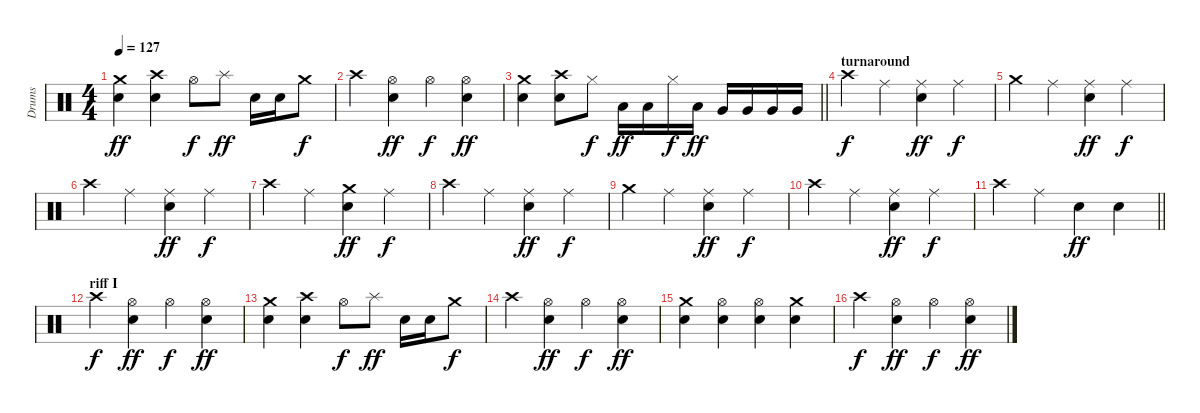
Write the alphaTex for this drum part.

\track ("Drums" "Drums") {instrument percussion}
\staff {score}
\articulation defaults
\ts (4 4)
\tempo 127
\clef neutral
\ks c
("Crash medium (hit)" "Snare (hit) 2").4{dy ff} ("Crash high (hit)" "Snare (hit) 2").4 "Hi-Hat (open)".8{dy f} "Splash (hit)".8{dy ff} "Snare (hit) 2".16 "Snare (hit) 2".16 "Crash medium (hit)".8{dy f} |
"Crash high (hit)".4 ("Hi-Hat (open)" "Snare (hit) 2").4{dy ff} "Hi-Hat (open)".4{dy f} ("Hi-Hat (open)" "Snare (hit) 2").4{dy ff} |
\barLineRight lightlight
("Crash medium (hit)" "Snare (hit) 2").4 ("Crash high (hit)" "Snare (hit) 2").8 "Hi-Hat (closed)".8{dy f} "Low Tom (hit)".16{dy ff} "Low Tom (hit)".16 "Hi-Hat (closed)".16{dy f} "Low Tom (hit)".16{dy ff} "Very Low Tom (hit)".16 "Very Low Tom (hit)".16 "Very Low Tom (hit)".16 "Very Low Tom (hit)".16 |
\section ("" "turnaround")
"Crash high (hit)".4{dy f} "Ride (middle)".4 ("Ride (middle)" "Snare (hit) 2").4{dy ff} "Ride (middle)".4{dy f} |
"Crash medium (hit)".4 "Ride (middle)".4 ("Ride (middle)" "Snare (hit) 2").4{dy ff} "Ride (middle)".4{dy f} |
"Crash high (hit)".4 "Ride (middle)".4 ("Ride (middle)" "Snare (hit) 2").4{dy ff} "Ride (middle)".4{dy f} |
"Crash high (hit)".4 "Ride (middle)".4 ("Crash medium (hit)" "Snare (hit) 2").4{dy ff} "Ride (middle)".4{dy f} |
"Crash high (hit)".4 "Ride (middle)".4 ("Ride (middle)" "Snare (hit) 2").4{dy ff} "Ride (middle)".4{dy f} |
"Crash medium (hit)".4 "Ride (middle)".4 ("Ride (middle)" "Snare (hit) 2").4{dy ff} "Ride (middle)".4{dy f} |
"Crash high (hit)".4 "Ride (middle)".4 ("Ride (middle)" "Snare (hit) 2").4{dy ff} "Ride (middle)".4{dy f} |
\barLineRight lightlight "Crash high (hit)".4 "Ride (middle)".4 "Snare (hit) 2".4{dy ff} "Snare (hit) 2".4
|
\section ("" "riff I")
"Crash high (hit)".4{dy f} ("Hi-Hat (open)" "Snare (hit) 2").4{dy ff} "Hi-Hat (open)".4{dy f} ("Hi-Hat (open)" "Snare (hit) 2").4{dy ff} |
("Crash medium (hit)" "Snare (hit) 2").4 ("Crash high (hit)" "Snare (hit) 2").4 "Hi-Hat (open)".8{dy f} "Splash (hit)".8{dy ff} "Snare (hit) 2".16 "Snare (hit) 2".16 "Crash medium (hit)".8{dy f} |
"Crash high (hit)".4 ("Hi-Hat (open)" "Snare (hit) 2").4{dy ff} "Hi-Hat (open)".4{dy f} ("Hi-Hat (open)" "Snare (hit) 2").4{dy ff} |
("Crash medium (hit)" "Snare (hit) 2").4 ("Hi-Hat (open)" "Snare (hit) 2").4 ("Hi-Hat (open)" "Snare (hit) 2").4 ("Crash medium (hit)" "Snare (hit) 2").4 |
"Crash high (hit)".4{dy f} ("Hi-Hat (open)" "Snare (hit) 2").4{dy ff} "Hi-Hat (open)".4{dy f} ("Hi-Hat (open)" "Snare (hit) 2").4{dy ff}
